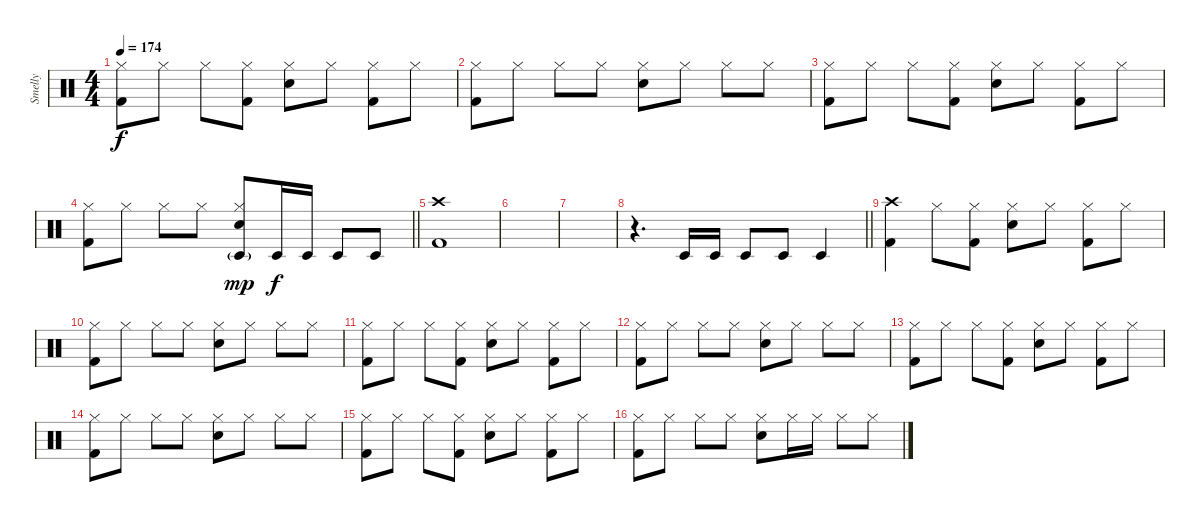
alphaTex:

\track ("Smelly" "Smelly") {instrument percussion}
\staff {score}
\articulation defaults
\ts (4 4)
\tempo 174
\clef neutral
\ks c
("Hi-Hat (closed)" "Kick (hit) 2").8{dy f} "Hi-Hat (closed)".8 "Hi-Hat (closed)".8 ("Hi-Hat (closed)" "Kick (hit) 2").8 ("Hi-Hat (closed)" "Electric Snare (hit)").8 "Hi-Hat (closed)".8 ("Hi-Hat (closed)" "Kick (hit) 2").8 "Hi-Hat (closed)".8 |
("Hi-Hat (closed)" "Kick (hit) 2").8 "Hi-Hat (closed)".8 "Hi-Hat (closed)".8 "Hi-Hat (closed)".8 ("Hi-Hat (closed)" "Electric Snare (hit)").8 "Hi-Hat (closed)".8 "Hi-Hat (closed)".8 "Hi-Hat (closed)".8 |
("Hi-Hat (closed)" "Kick (hit) 2").8 "Hi-Hat (closed)".8 "Hi-Hat (closed)".8 ("Hi-Hat (closed)" "Kick (hit) 2").8 ("Hi-Hat (closed)" "Electric Snare (hit)").8 "Hi-Hat (closed)".8 ("Hi-Hat (closed)" "Kick (hit) 2").8 "Hi-Hat (closed)".8 |
\barLineRight lightlight
("Hi-Hat (closed)" "Kick (hit) 2").8 "Hi-Hat (closed)".8 "Hi-Hat (closed)".8 "Hi-Hat (closed)".8 ("Hi-Hat (closed)" "Electric Snare (hit)" "Timbale low (hit)"{g}).8{dy mp} "Timbale low (hit)".16{dy f} "Timbale low (hit)".16 "Timbale low (hit)".8 "Timbale low (hit)".8 |
\section ("" "")
("Crash high (hit)" "Kick (hit) 2").1 |
|
|
\barLineRight lightlight
r.4{d} "Timbale low (hit)".16 "Timbale low (hit)".16 "Timbale low (hit)".8 "Timbale low (hit)".8 "Timbale low (hit)".4 |
\section ("" "")
("Crash high (hit)" "Kick (hit) 2").4 "Hi-Hat (closed)".8 ("Hi-Hat (closed)" "Kick (hit) 2").8 ("Hi-Hat (closed)" "Electric Snare (hit)").8 "Hi-Hat (closed)".8 ("Hi-Hat (closed)" "Kick (hit) 2").8 "Hi-Hat (closed)".8 |
("Hi-Hat (closed)" "Kick (hit) 2").8 "Hi-Hat (closed)".8 "Hi-Hat (closed)".8 "Hi-Hat (closed)".8 ("Hi-Hat (closed)" "Electric Snare (hit)").8 "Hi-Hat (closed)".8 "Hi-Hat (closed)".8 "Hi-Hat (closed)".8 |
("Hi-Hat (closed)" "Kick (hit) 2").8 "Hi-Hat (closed)".8 "Hi-Hat (closed)".8 ("Hi-Hat (closed)" "Kick (hit) 2").8 ("Hi-Hat (closed)" "Electric Snare (hit)").8 "Hi-Hat (closed)".8 ("Hi-Hat (closed)" "Kick (hit) 2").8 "Hi-Hat (closed)".8 |
("Hi-Hat (closed)" "Kick (hit) 2").8 "Hi-Hat (closed)".8 "Hi-Hat (closed)".8 "Hi-Hat (closed)".8 ("Hi-Hat (closed)" "Electric Snare (hit)").8 "Hi-Hat (closed)".8 "Hi-Hat (closed)".8 "Hi-Hat (closed)".8 |
("Hi-Hat (closed)" "Kick (hit) 2").8 "Hi-Hat (closed)".8 "Hi-Hat (closed)".8 ("Hi-Hat (closed)" "Kick (hit) 2").8 ("Hi-Hat (closed)" "Electric Snare (hit)").8 "Hi-Hat (closed)".8 ("Hi-Hat (closed)" "Kick (hit) 2").8 "Hi-Hat (closed)".8 |
("Hi-Hat (closed)" "Kick (hit) 2").8 "Hi-Hat (closed)".8 "Hi-Hat (closed)".8 "Hi-Hat (closed)".8 ("Hi-Hat (closed)" "Electric Snare (hit)").8 "Hi-Hat (closed)".8 "Hi-Hat (closed)".8 "Hi-Hat (closed)".8 |
("Hi-Hat (closed)" "Kick (hit) 2").8 "Hi-Hat (closed)".8 "Hi-Hat (closed)".8 ("Hi-Hat (closed)" "Kick (hit) 2").8 ("Hi-Hat (closed)" "Electric Snare (hit)").8 "Hi-Hat (closed)".8 ("Hi-Hat (closed)" "Kick (hit) 2").8 "Hi-Hat (closed)".8 |
("Hi-Hat (closed)" "Kick (hit) 2").8 "Hi-Hat (closed)".8 "Hi-Hat (closed)".8 "Hi-Hat (closed)".8 ("Hi-Hat (closed)" "Electric Snare (hit)").8 "Hi-Hat (closed)".16 "Hi-Hat (closed)".16 "Hi-Hat (closed)".8 "Hi-Hat (closed)".8
